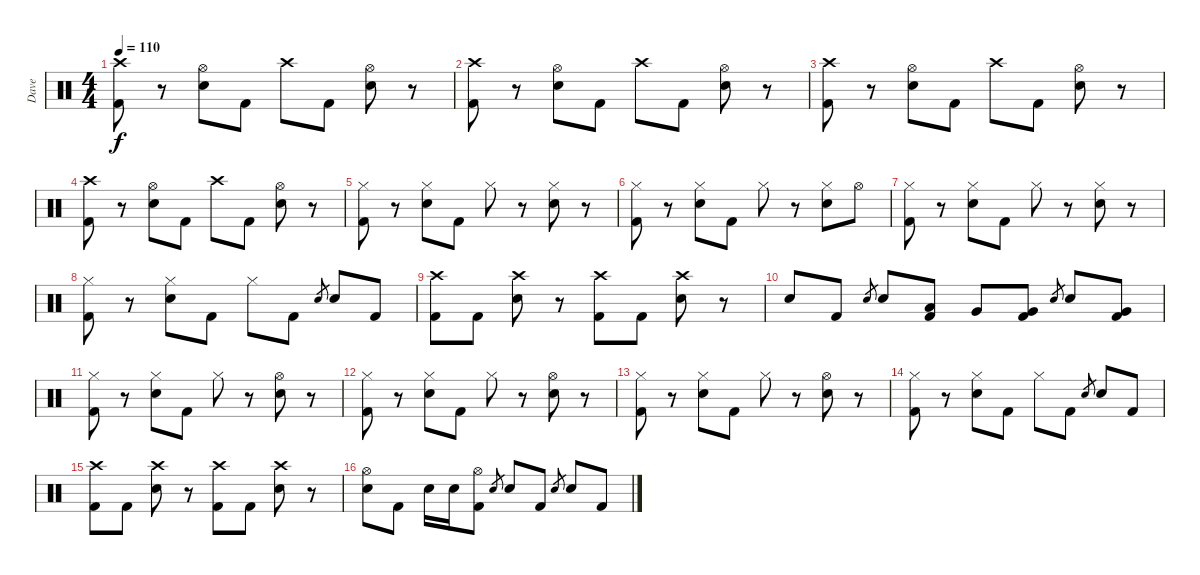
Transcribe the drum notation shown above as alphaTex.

\track ("Dave" "Dave") {instrument percussion}
\staff {score}
\articulation defaults
\ts (4 4)
\tempo 110
\clef neutral
\ks c
("Crash high (hit)" "Kick (hit) 2").8{dy f} r.8 ("Hi-Hat (open)" "Snare (hit) 2").8 "Kick (hit) 2".8 "Crash high (hit)".8 "Kick (hit) 2".8 ("Hi-Hat (open)" "Snare (hit) 2").8 r.8 |
("Crash high (hit)" "Kick (hit) 2").8 r.8 ("Hi-Hat (open)" "Snare (hit) 2").8 "Kick (hit) 2".8 "Crash high (hit)".8 "Kick (hit) 2".8 ("Hi-Hat (open)" "Snare (hit) 2").8 r.8 |
("Crash high (hit)" "Kick (hit) 2").8 r.8 ("Hi-Hat (open)" "Snare (hit) 2").8 "Kick (hit) 2".8 "Crash high (hit)".8 "Kick (hit) 2".8 ("Hi-Hat (open)" "Snare (hit) 2").8 r.8 |
("Crash high (hit)" "Kick (hit) 2").8 r.8 ("Hi-Hat (open)" "Snare (hit) 2").8 "Kick (hit) 2".8 "Crash high (hit)".8 "Kick (hit) 2".8 ("Hi-Hat (open)" "Snare (hit) 2").8 r.8 |
("Hi-Hat (closed)" "Kick (hit) 2").8 r.8 ("Hi-Hat (closed)" "Snare (hit) 2").8 "Kick (hit) 2".8 "Hi-Hat (closed)".8 r.8 ("Hi-Hat (closed)" "Snare (hit) 2").8 r.8 |
("Hi-Hat (closed)" "Kick (hit) 2").8 r.8 ("Hi-Hat (closed)" "Snare (hit) 2").8 "Kick (hit) 2".8 "Hi-Hat (closed)".8 r.8 ("Hi-Hat (closed)" "Snare (hit) 2").8 "Hi-Hat (open)".8 |
("Hi-Hat (closed)" "Kick (hit) 2").8 r.8 ("Hi-Hat (closed)" "Snare (hit) 2").8 "Kick (hit) 2".8 "Hi-Hat (closed)".8 r.8 ("Hi-Hat (closed)" "Snare (hit) 2").8 r.8 |
("Hi-Hat (closed)" "Kick (hit) 2").8 r.8 ("Hi-Hat (closed)" "Snare (hit) 2").8 "Kick (hit) 2".8 "Hi-Hat (closed)".8 "Kick (hit) 2".8 "Snare (hit) 2".8{gr} "Snare (hit) 2".8 "Kick (hit) 2".8 |
("Crash high (hit)" "Kick (hit) 2").8 "Kick (hit) 2".8 ("Crash high (hit)" "Snare (hit) 2").8 r.8 ("Crash high (hit)" "Kick (hit) 2").8 "Kick (hit) 2".8 ("Crash high (hit)" "Snare (hit) 2").8 r.8 |
"Snare (hit) 2".8 "Kick (hit) 2".8 "Snare (hit) 2".8{gr} "Snare (hit) 2".8 ("Low Tom (hit)" "Kick (hit) 2").8 "Very Low Tom (hit)".8 ("Very Low Tom (hit)" "Kick (hit) 2").8 "Snare (hit) 2".8{gr} "Snare (hit) 2".8 ("Very Low Tom (hit)" "Kick (hit) 2").8 |
("Hi-Hat (closed)" "Kick (hit) 2").8 r.8 ("Hi-Hat (closed)" "Snare (hit) 2").8 "Kick (hit) 2".8 "Hi-Hat (closed)".8 r.8 ("Hi-Hat (open)" "Snare (hit) 2").8 r.8 |
("Hi-Hat (closed)" "Kick (hit) 2").8 r.8 ("Hi-Hat (closed)" "Snare (hit) 2").8 "Kick (hit) 2".8 "Hi-Hat (closed)".8 r.8 ("Hi-Hat (open)" "Snare (hit) 2").8 r.8 |
("Hi-Hat (closed)" "Kick (hit) 2").8 r.8 ("Hi-Hat (closed)" "Snare (hit) 2").8 "Kick (hit) 2".8 "Hi-Hat (closed)".8 r.8 ("Hi-Hat (open)" "Snare (hit) 2").8 r.8 |
("Hi-Hat (closed)" "Kick (hit) 2").8 r.8 ("Hi-Hat (closed)" "Snare (hit) 2").8 "Kick (hit) 2".8 "Hi-Hat (closed)".8 "Kick (hit) 2".8 "Snare (hit) 2".8{gr} "Snare (hit) 2".8 "Kick (hit) 2".8 |
("Crash high (hit)" "Kick (hit) 2").8 "Kick (hit) 2".8 ("Crash high (hit)" "Snare (hit) 2").8 r.8 ("Crash high (hit)" "Kick (hit) 2").8 "Kick (hit) 2".8 ("Crash high (hit)" "Snare (hit) 2").8 r.8 |
("Hi-Hat (open)" "Snare (hit) 2").8 "Kick (hit) 2".8 "Snare (hit) 2".16 "Snare (hit) 2".16 ("Hi-Hat (open)" "Kick (hit) 2").8 "Snare (hit) 2".8{gr} "Snare (hit) 2".8 "Kick (hit) 2".8 "Snare (hit) 2".8{gr} "Snare (hit) 2".8 "Kick (hit) 2".8
